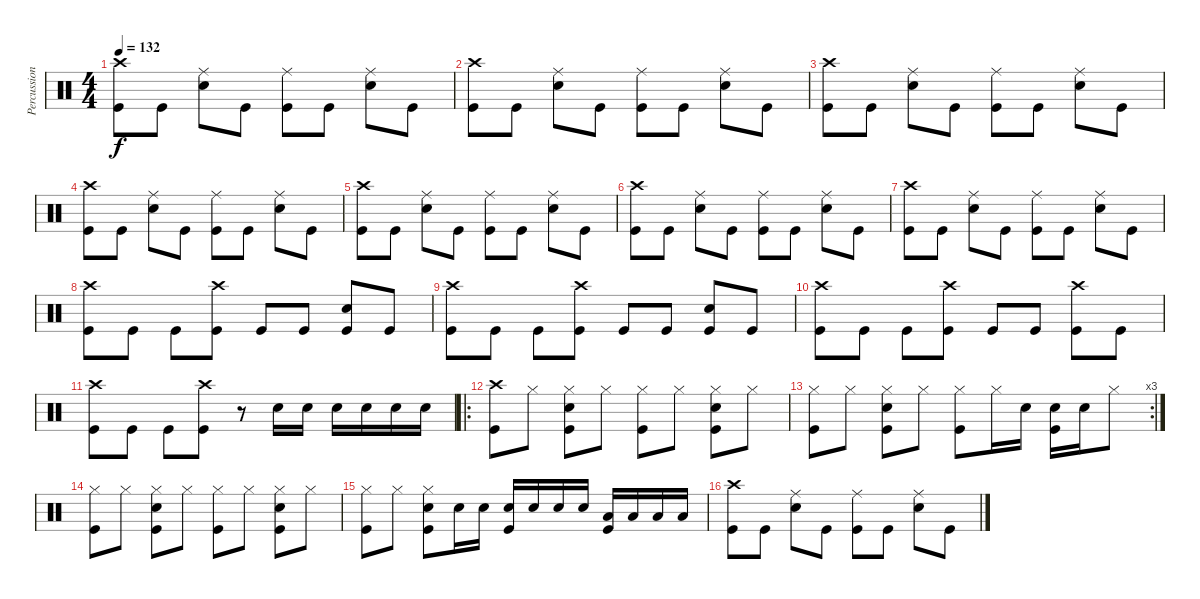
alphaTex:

\track ("Percussioni" "Percussion") {instrument percussion}
\staff {score}
\articulation defaults
\ts (4 4)
\tempo 132
\clef neutral
\ks c
("Crash high (hit)" "Kick (hit)").8{dy f} "Kick (hit)".8 ("Ride (middle)" "Snare (hit) 2").8 "Kick (hit)".8 ("Ride (middle)" "Kick (hit)").8 "Kick (hit)".8 ("Ride (middle)" "Snare (hit) 2").8 "Kick (hit)".8 |
("Crash high (hit)" "Kick (hit)").8 "Kick (hit)".8 ("Ride (middle)" "Snare (hit) 2").8 "Kick (hit)".8 ("Ride (middle)" "Kick (hit)").8 "Kick (hit)".8 ("Ride (middle)" "Snare (hit) 2").8 "Kick (hit)".8 |
("Crash high (hit)" "Kick (hit)").8 "Kick (hit)".8 ("Ride (middle)" "Snare (hit) 2").8 "Kick (hit)".8 ("Ride (middle)" "Kick (hit)").8 "Kick (hit)".8 ("Ride (middle)" "Snare (hit) 2").8 "Kick (hit)".8 |
("Crash high (hit)" "Kick (hit)").8 "Kick (hit)".8 ("Ride (middle)" "Snare (hit) 2").8 "Kick (hit)".8 ("Ride (middle)" "Kick (hit)").8 "Kick (hit)".8 ("Ride (middle)" "Snare (hit) 2").8 "Kick (hit)".8 |
("Crash high (hit)" "Kick (hit)").8 "Kick (hit)".8 ("Ride (middle)" "Snare (hit) 2").8 "Kick (hit)".8 ("Ride (middle)" "Kick (hit)").8 "Kick (hit)".8 ("Ride (middle)" "Snare (hit) 2").8 "Kick (hit)".8 |
("Crash high (hit)" "Kick (hit)").8 "Kick (hit)".8 ("Ride (middle)" "Snare (hit) 2").8 "Kick (hit)".8 ("Ride (middle)" "Kick (hit)").8 "Kick (hit)".8 ("Ride (middle)" "Snare (hit) 2").8 "Kick (hit)".8 |
("Crash high (hit)" "Kick (hit)").8 "Kick (hit)".8 ("Ride (middle)" "Snare (hit) 2").8 "Kick (hit)".8 ("Ride (middle)" "Kick (hit)").8 "Kick (hit)".8 ("Ride (middle)" "Snare (hit) 2").8 "Kick (hit)".8 |
("Crash high (hit)" "Kick (hit)").8 "Kick (hit)".8 "Kick (hit)".8 ("Crash high (hit)" "Kick (hit)").8 "Kick (hit)".8 "Kick (hit)".8 ("Snare (hit) 2" "Kick (hit)").8 "Kick (hit)".8 |
("Crash high (hit)" "Kick (hit)").8 "Kick (hit)".8 "Kick (hit)".8 ("Crash high (hit)" "Kick (hit)").8 "Kick (hit)".8 "Kick (hit)".8 ("Snare (hit) 2" "Kick (hit)").8 "Kick (hit)".8 |
("Crash high (hit)" "Kick (hit)").8 "Kick (hit)".8 "Kick (hit)".8 ("Crash high (hit)" "Kick (hit)").8 "Kick (hit)".8 "Kick (hit)".8 ("Crash high (hit)" "Kick (hit)").8 "Kick (hit)".8 |
("Crash high (hit)" "Kick (hit)").8 "Kick (hit)".8 "Kick (hit)".8 ("Crash high (hit)" "Kick (hit)").8 r.8 "Snare (hit) 2".16 "Snare (hit) 2".16 "Snare (hit) 2".16 "Snare (hit) 2".16 "Snare (hit) 2".16 "Snare (hit) 2".16 |
\ro
("Crash high (hit)" "Kick (hit)").8 "Hi-Hat (closed)".8 ("Hi-Hat (closed)" "Snare (hit) 2" "Kick (hit)").8 "Hi-Hat (closed)".8 ("Hi-Hat (closed)" "Kick (hit)").8 "Hi-Hat (closed)".8 ("Hi-Hat (closed)" "Snare (hit) 2" "Kick (hit)").8 "Hi-Hat (closed)".8 |
\rc 3
("Hi-Hat (closed)" "Kick (hit)").8 "Hi-Hat (closed)".8 ("Hi-Hat (closed)" "Snare (hit) 2" "Kick (hit)").8 "Hi-Hat (closed)".8 ("Hi-Hat (closed)" "Kick (hit)").8 "Hi-Hat (closed)".16 "Snare (hit) 2".16 ("Snare (hit) 2" "Kick (hit)").16 "Snare (hit) 2".16 "Hi-Hat (closed)".8 |
("Hi-Hat (closed)" "Kick (hit)").8 "Hi-Hat (closed)".8 ("Hi-Hat (closed)" "Snare (hit) 2" "Kick (hit)").8 "Hi-Hat (closed)".8 ("Hi-Hat (closed)" "Kick (hit)").8 "Hi-Hat (closed)".8 ("Hi-Hat (closed)" "Snare (hit) 2" "Kick (hit)").8 "Hi-Hat (closed)".8 |
("Hi-Hat (closed)" "Kick (hit)").8 "Hi-Hat (closed)".8 ("Hi-Hat (closed)" "Snare (hit) 2" "Kick (hit)").8 "Snare (hit) 2".16 "Snare (hit) 2".16 ("Snare (hit) 2" "Kick (hit)").16 "Snare (hit) 2".16 "Snare (hit) 2".16 "Snare (hit) 2".16 ("Low Tom (hit)" "Kick (hit)").16 "Low Tom (hit)".16 "Low Tom (hit)".16 "Low Tom (hit)".16 |
("Crash high (hit)" "Kick (hit)").8 "Kick (hit)".8 ("Ride (middle)" "Snare (hit) 2").8 "Kick (hit)".8 ("Ride (middle)" "Kick (hit)").8 "Kick (hit)".8 ("Ride (middle)" "Snare (hit) 2").8 "Kick (hit)".8
